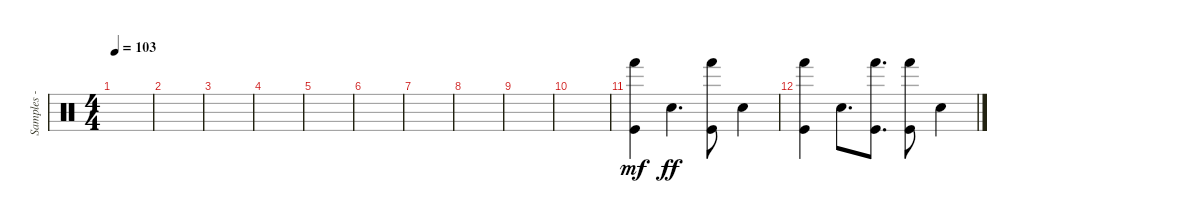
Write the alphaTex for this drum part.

\track ("Samples - Joe Hahn" "Samples - ") {instrument percussion}
\staff {score}
\articulation defaults
\ts (4 4)
\tempo 103
\clef neutral
\ks c
|
|
|
|
|
|
|
|
|
|
("Hand (hit)" "Kick (hit)").4{dy mf} "Electric Snare (hit)".4{d dy ff} ("Hand (hit)" "Kick (hit)").8 "Electric Snare (hit)".4 |
("Hand (hit)" "Kick (hit)").4 "Electric Snare (hit)".8{d} ("Hand (hit)" "Kick (hit)").8{d} ("Hand (hit)" "Kick (hit)").8 "Electric Snare (hit)".4
